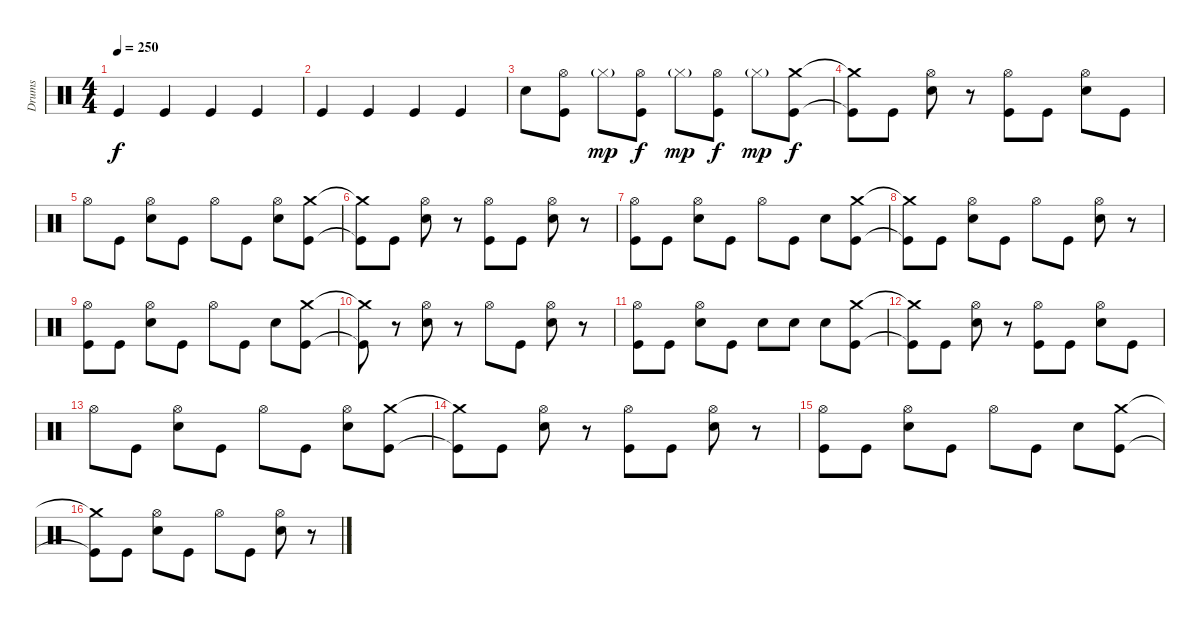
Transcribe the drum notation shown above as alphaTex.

\track ("Drums" "Drums") {instrument percussion}
\staff {score}
\articulation defaults
\ts (4 4)
\tempo 250
\clef neutral
\ks c "Kick (hit)".4{dy f} "Kick (hit)".4 "Kick (hit)".4 "Kick (hit)".4
|
"Kick (hit)".4 "Kick (hit)".4 "Kick (hit)".4 "Kick (hit)".4 |
"Electric Snare (hit)".8 ("Hi-Hat (open)" "Kick (hit)").8 "Hi-Hat (closed)"{g}.8{dy mp} ("Hi-Hat (open)" "Kick (hit)").8{dy f} "Hi-Hat (closed)"{g}.8{dy mp} ("Hi-Hat (open)" "Kick (hit)").8{dy f} "Hi-Hat (closed)"{g}.8{dy mp} ("Crash medium (hit)" "Kick (hit)").8{dy f} |
("Crash medium (hit)"{t} "Kick (hit)"{t}).8 "Kick (hit)".8 ("Hi-Hat (open)" "Electric Snare (hit)").8 r.8 ("Hi-Hat (open)" "Kick (hit)").8 "Kick (hit)".8 ("Hi-Hat (open)" "Electric Snare (hit)").8 "Kick (hit)".8 |
"Hi-Hat (open)".8 "Kick (hit)".8 ("Hi-Hat (open)" "Electric Snare (hit)").8 "Kick (hit)".8 "Hi-Hat (open)".8 "Kick (hit)".8 ("Hi-Hat (open)" "Electric Snare (hit)").8 ("Crash medium (hit)" "Kick (hit)").8 |
("Crash medium (hit)"{t} "Kick (hit)"{t}).8 "Kick (hit)".8 ("Hi-Hat (open)" "Electric Snare (hit)").8 r.8 ("Hi-Hat (open)" "Kick (hit)").8 "Kick (hit)".8 ("Hi-Hat (open)" "Electric Snare (hit)").8 r.8 |
("Hi-Hat (open)" "Kick (hit)").8 "Kick (hit)".8 ("Hi-Hat (open)" "Electric Snare (hit)").8 "Kick (hit)".8 "Hi-Hat (open)".8 "Kick (hit)".8 "Electric Snare (hit)".8 ("Crash medium (hit)" "Kick (hit)").8 |
("Crash medium (hit)"{t} "Kick (hit)"{t}).8 "Kick (hit)".8 ("Hi-Hat (open)" "Electric Snare (hit)").8 "Kick (hit)".8 "Hi-Hat (open)".8 "Kick (hit)".8 ("Hi-Hat (open)" "Electric Snare (hit)").8 r.8 |
("Hi-Hat (open)" "Kick (hit)").8 "Kick (hit)".8 ("Hi-Hat (open)" "Electric Snare (hit)").8 "Kick (hit)".8 "Hi-Hat (open)".8 "Kick (hit)".8 "Electric Snare (hit)".8 ("Crash medium (hit)" "Kick (hit)").8 |
("Crash medium (hit)"{t} "Kick (hit)"{t}).8 r.8 ("Hi-Hat (open)" "Electric Snare (hit)").8 r.8 "Hi-Hat (open)".8 "Kick (hit)".8 ("Hi-Hat (open)" "Electric Snare (hit)").8 r.8 |
("Hi-Hat (open)" "Kick (hit)").8 "Kick (hit)".8 ("Hi-Hat (open)" "Electric Snare (hit)").8 "Kick (hit)".8 "Electric Snare (hit)".8 "Electric Snare (hit)".8 "Electric Snare (hit)".8 ("Crash medium (hit)" "Kick (hit)").8 |
("Crash medium (hit)"{t} "Kick (hit)"{t}).8 "Kick (hit)".8 ("Hi-Hat (open)" "Electric Snare (hit)").8 r.8 ("Hi-Hat (open)" "Kick (hit)").8 "Kick (hit)".8 ("Hi-Hat (open)" "Electric Snare (hit)").8 "Kick (hit)".8 |
"Hi-Hat (open)".8 "Kick (hit)".8 ("Hi-Hat (open)" "Electric Snare (hit)").8 "Kick (hit)".8 "Hi-Hat (open)".8 "Kick (hit)".8 ("Hi-Hat (open)" "Electric Snare (hit)").8 ("Crash medium (hit)" "Kick (hit)").8 |
("Crash medium (hit)"{t} "Kick (hit)"{t}).8 "Kick (hit)".8 ("Hi-Hat (open)" "Electric Snare (hit)").8 r.8 ("Hi-Hat (open)" "Kick (hit)").8 "Kick (hit)".8 ("Hi-Hat (open)" "Electric Snare (hit)").8 r.8 |
("Hi-Hat (open)" "Kick (hit)").8 "Kick (hit)".8 ("Hi-Hat (open)" "Electric Snare (hit)").8 "Kick (hit)".8 "Hi-Hat (open)".8 "Kick (hit)".8 "Electric Snare (hit)".8 ("Crash medium (hit)" "Kick (hit)").8 |
("Crash medium (hit)"{t} "Kick (hit)"{t}).8 "Kick (hit)".8 ("Hi-Hat (open)" "Electric Snare (hit)").8 "Kick (hit)".8 "Hi-Hat (open)".8 "Kick (hit)".8 ("Hi-Hat (open)" "Electric Snare (hit)").8 r.8
